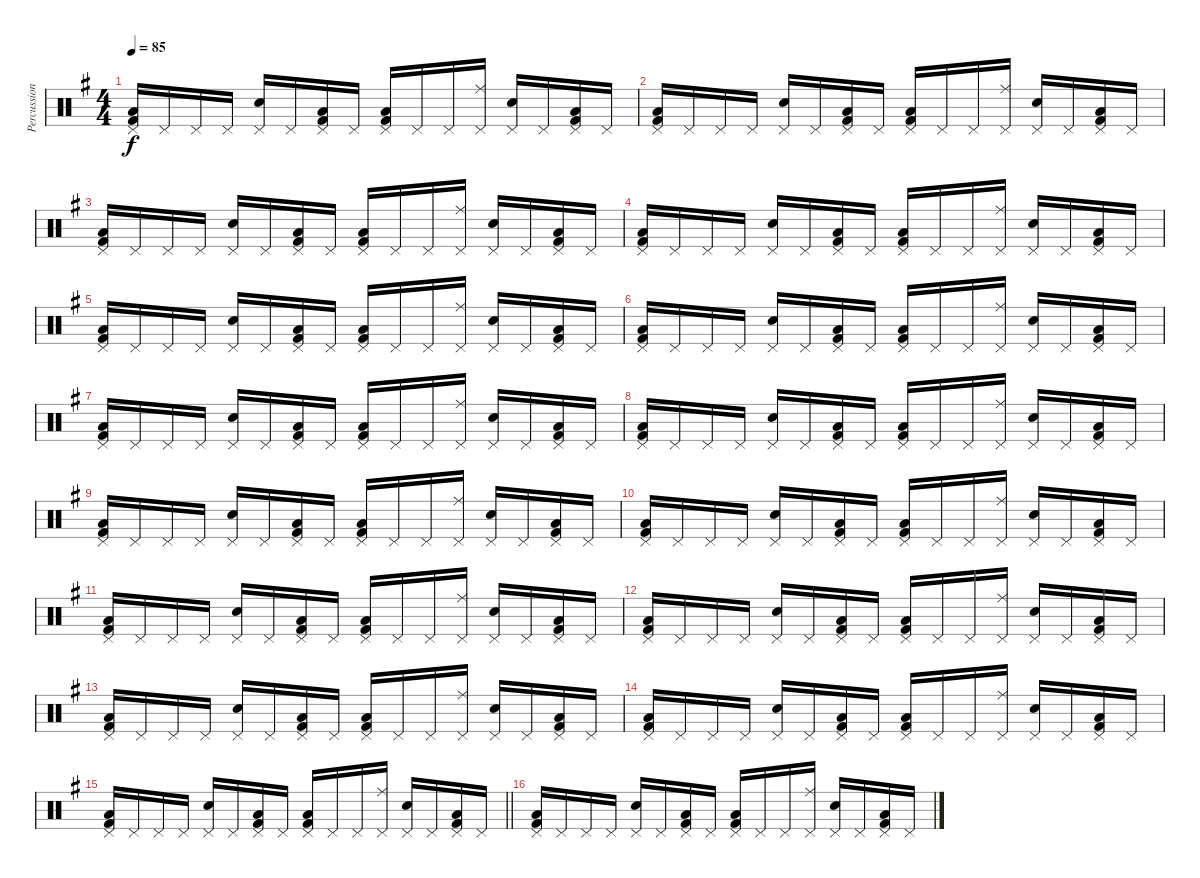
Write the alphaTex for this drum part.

\track ("Percussion" "Percussion") {instrument percussion}
\staff {score}
\articulation defaults
\ts (4 4)
\tempo 85
\clef neutral
\ks g
("Pedal Hi-Hat (hit)" "Low Tom (hit)" "Kick (hit) 2").16{dy f} "Pedal Hi-Hat (hit)".16 "Pedal Hi-Hat (hit)".16 "Pedal Hi-Hat (hit)".16 ("Pedal Hi-Hat (hit)" "Electric Snare (hit)").16 "Pedal Hi-Hat (hit)".16 ("Pedal Hi-Hat (hit)" "Low Floor Tom (hit)" "Kick (hit) 2").16 "Pedal Hi-Hat (hit)".16 ("Pedal Hi-Hat (hit)" "Low Tom (hit)" "Kick (hit) 2").16 "Pedal Hi-Hat (hit)".16 "Pedal Hi-Hat (hit)".16 ("Pedal Hi-Hat (hit)" "Ride (middle)").16 ("Pedal Hi-Hat (hit)" "Electric Snare (hit)").16 "Pedal Hi-Hat (hit)".16 ("Pedal Hi-Hat (hit)" "Low Floor Tom (hit)" "Kick (hit) 2").16 "Pedal Hi-Hat (hit)".16 |
("Pedal Hi-Hat (hit)" "Low Tom (hit)" "Kick (hit) 2").16 "Pedal Hi-Hat (hit)".16 "Pedal Hi-Hat (hit)".16 "Pedal Hi-Hat (hit)".16 ("Pedal Hi-Hat (hit)" "Electric Snare (hit)").16 "Pedal Hi-Hat (hit)".16 ("Pedal Hi-Hat (hit)" "Low Floor Tom (hit)" "Kick (hit) 2").16 "Pedal Hi-Hat (hit)".16 ("Pedal Hi-Hat (hit)" "Low Tom (hit)" "Kick (hit) 2").16 "Pedal Hi-Hat (hit)".16 "Pedal Hi-Hat (hit)".16 ("Pedal Hi-Hat (hit)" "Ride (middle)").16 ("Pedal Hi-Hat (hit)" "Electric Snare (hit)").16 "Pedal Hi-Hat (hit)".16 ("Pedal Hi-Hat (hit)" "Low Floor Tom (hit)" "Kick (hit) 2").16 "Pedal Hi-Hat (hit)".16 |
("Pedal Hi-Hat (hit)" "Low Tom (hit)" "Kick (hit) 2").16 "Pedal Hi-Hat (hit)".16 "Pedal Hi-Hat (hit)".16 "Pedal Hi-Hat (hit)".16 ("Pedal Hi-Hat (hit)" "Electric Snare (hit)").16 "Pedal Hi-Hat (hit)".16 ("Pedal Hi-Hat (hit)" "Low Floor Tom (hit)" "Kick (hit) 2").16 "Pedal Hi-Hat (hit)".16 ("Pedal Hi-Hat (hit)" "Low Tom (hit)" "Kick (hit) 2").16 "Pedal Hi-Hat (hit)".16 "Pedal Hi-Hat (hit)".16 ("Pedal Hi-Hat (hit)" "Ride (middle)").16 ("Pedal Hi-Hat (hit)" "Electric Snare (hit)").16 "Pedal Hi-Hat (hit)".16 ("Pedal Hi-Hat (hit)" "Low Floor Tom (hit)" "Kick (hit) 2").16 "Pedal Hi-Hat (hit)".16 |
("Pedal Hi-Hat (hit)" "Low Tom (hit)" "Kick (hit) 2").16 "Pedal Hi-Hat (hit)".16 "Pedal Hi-Hat (hit)".16 "Pedal Hi-Hat (hit)".16 ("Pedal Hi-Hat (hit)" "Electric Snare (hit)").16 "Pedal Hi-Hat (hit)".16 ("Pedal Hi-Hat (hit)" "Low Floor Tom (hit)" "Kick (hit) 2").16 "Pedal Hi-Hat (hit)".16 ("Pedal Hi-Hat (hit)" "Low Tom (hit)" "Kick (hit) 2").16 "Pedal Hi-Hat (hit)".16 "Pedal Hi-Hat (hit)".16 ("Pedal Hi-Hat (hit)" "Ride (middle)").16 ("Pedal Hi-Hat (hit)" "Electric Snare (hit)").16 "Pedal Hi-Hat (hit)".16 ("Pedal Hi-Hat (hit)" "Low Floor Tom (hit)" "Kick (hit) 2").16 "Pedal Hi-Hat (hit)".16 |
("Pedal Hi-Hat (hit)" "Low Tom (hit)" "Kick (hit) 2").16 "Pedal Hi-Hat (hit)".16 "Pedal Hi-Hat (hit)".16 "Pedal Hi-Hat (hit)".16 ("Pedal Hi-Hat (hit)" "Electric Snare (hit)").16 "Pedal Hi-Hat (hit)".16 ("Pedal Hi-Hat (hit)" "Low Floor Tom (hit)" "Kick (hit) 2").16 "Pedal Hi-Hat (hit)".16 ("Pedal Hi-Hat (hit)" "Low Tom (hit)" "Kick (hit) 2").16 "Pedal Hi-Hat (hit)".16 "Pedal Hi-Hat (hit)".16 ("Pedal Hi-Hat (hit)" "Ride (middle)").16 ("Pedal Hi-Hat (hit)" "Electric Snare (hit)").16 "Pedal Hi-Hat (hit)".16 ("Pedal Hi-Hat (hit)" "Low Floor Tom (hit)" "Kick (hit) 2").16 "Pedal Hi-Hat (hit)".16 |
("Pedal Hi-Hat (hit)" "Low Tom (hit)" "Kick (hit) 2").16 "Pedal Hi-Hat (hit)".16 "Pedal Hi-Hat (hit)".16 "Pedal Hi-Hat (hit)".16 ("Pedal Hi-Hat (hit)" "Electric Snare (hit)").16 "Pedal Hi-Hat (hit)".16 ("Pedal Hi-Hat (hit)" "Low Floor Tom (hit)" "Kick (hit) 2").16 "Pedal Hi-Hat (hit)".16 ("Pedal Hi-Hat (hit)" "Low Tom (hit)" "Kick (hit) 2").16 "Pedal Hi-Hat (hit)".16 "Pedal Hi-Hat (hit)".16 ("Pedal Hi-Hat (hit)" "Ride (middle)").16 ("Pedal Hi-Hat (hit)" "Electric Snare (hit)").16 "Pedal Hi-Hat (hit)".16 ("Pedal Hi-Hat (hit)" "Low Floor Tom (hit)" "Kick (hit) 2").16 "Pedal Hi-Hat (hit)".16 |
("Pedal Hi-Hat (hit)" "Low Tom (hit)" "Kick (hit) 2").16 "Pedal Hi-Hat (hit)".16 "Pedal Hi-Hat (hit)".16 "Pedal Hi-Hat (hit)".16 ("Pedal Hi-Hat (hit)" "Electric Snare (hit)").16 "Pedal Hi-Hat (hit)".16 ("Pedal Hi-Hat (hit)" "Low Floor Tom (hit)" "Kick (hit) 2").16 "Pedal Hi-Hat (hit)".16 ("Pedal Hi-Hat (hit)" "Low Tom (hit)" "Kick (hit) 2").16 "Pedal Hi-Hat (hit)".16 "Pedal Hi-Hat (hit)".16 ("Pedal Hi-Hat (hit)" "Ride (middle)").16 ("Pedal Hi-Hat (hit)" "Electric Snare (hit)").16 "Pedal Hi-Hat (hit)".16 ("Pedal Hi-Hat (hit)" "Low Floor Tom (hit)" "Kick (hit) 2").16 "Pedal Hi-Hat (hit)".16 |
("Pedal Hi-Hat (hit)" "Low Tom (hit)" "Kick (hit) 2").16 "Pedal Hi-Hat (hit)".16 "Pedal Hi-Hat (hit)".16 "Pedal Hi-Hat (hit)".16 ("Pedal Hi-Hat (hit)" "Electric Snare (hit)").16 "Pedal Hi-Hat (hit)".16 ("Pedal Hi-Hat (hit)" "Low Floor Tom (hit)" "Kick (hit) 2").16 "Pedal Hi-Hat (hit)".16 ("Pedal Hi-Hat (hit)" "Low Tom (hit)" "Kick (hit) 2").16 "Pedal Hi-Hat (hit)".16 "Pedal Hi-Hat (hit)".16 ("Pedal Hi-Hat (hit)" "Ride (middle)").16 ("Pedal Hi-Hat (hit)" "Electric Snare (hit)").16 "Pedal Hi-Hat (hit)".16 ("Pedal Hi-Hat (hit)" "Low Floor Tom (hit)" "Kick (hit) 2").16 "Pedal Hi-Hat (hit)".16 |
("Pedal Hi-Hat (hit)" "Low Tom (hit)" "Kick (hit) 2").16 "Pedal Hi-Hat (hit)".16 "Pedal Hi-Hat (hit)".16 "Pedal Hi-Hat (hit)".16 ("Pedal Hi-Hat (hit)" "Electric Snare (hit)").16 "Pedal Hi-Hat (hit)".16 ("Pedal Hi-Hat (hit)" "Low Floor Tom (hit)" "Kick (hit) 2").16 "Pedal Hi-Hat (hit)".16 ("Pedal Hi-Hat (hit)" "Low Tom (hit)" "Kick (hit) 2").16 "Pedal Hi-Hat (hit)".16 "Pedal Hi-Hat (hit)".16 ("Pedal Hi-Hat (hit)" "Ride (middle)").16 ("Pedal Hi-Hat (hit)" "Electric Snare (hit)").16 "Pedal Hi-Hat (hit)".16 ("Pedal Hi-Hat (hit)" "Low Floor Tom (hit)" "Kick (hit) 2").16 "Pedal Hi-Hat (hit)".16 |
("Pedal Hi-Hat (hit)" "Low Tom (hit)" "Kick (hit) 2").16 "Pedal Hi-Hat (hit)".16 "Pedal Hi-Hat (hit)".16 "Pedal Hi-Hat (hit)".16 ("Pedal Hi-Hat (hit)" "Electric Snare (hit)").16 "Pedal Hi-Hat (hit)".16 ("Pedal Hi-Hat (hit)" "Low Floor Tom (hit)" "Kick (hit) 2").16 "Pedal Hi-Hat (hit)".16 ("Pedal Hi-Hat (hit)" "Low Tom (hit)" "Kick (hit) 2").16 "Pedal Hi-Hat (hit)".16 "Pedal Hi-Hat (hit)".16 ("Pedal Hi-Hat (hit)" "Ride (middle)").16 ("Pedal Hi-Hat (hit)" "Electric Snare (hit)").16 "Pedal Hi-Hat (hit)".16 ("Pedal Hi-Hat (hit)" "Low Floor Tom (hit)" "Kick (hit) 2").16 "Pedal Hi-Hat (hit)".16 |
("Pedal Hi-Hat (hit)" "Low Tom (hit)" "Kick (hit) 2").16 "Pedal Hi-Hat (hit)".16 "Pedal Hi-Hat (hit)".16 "Pedal Hi-Hat (hit)".16 ("Pedal Hi-Hat (hit)" "Electric Snare (hit)").16 "Pedal Hi-Hat (hit)".16 ("Pedal Hi-Hat (hit)" "Low Floor Tom (hit)" "Kick (hit) 2").16 "Pedal Hi-Hat (hit)".16 ("Pedal Hi-Hat (hit)" "Low Tom (hit)" "Kick (hit) 2").16 "Pedal Hi-Hat (hit)".16 "Pedal Hi-Hat (hit)".16 ("Pedal Hi-Hat (hit)" "Ride (middle)").16 ("Pedal Hi-Hat (hit)" "Electric Snare (hit)").16 "Pedal Hi-Hat (hit)".16 ("Pedal Hi-Hat (hit)" "Low Floor Tom (hit)" "Kick (hit) 2").16 "Pedal Hi-Hat (hit)".16 |
("Pedal Hi-Hat (hit)" "Low Tom (hit)" "Kick (hit) 2").16 "Pedal Hi-Hat (hit)".16 "Pedal Hi-Hat (hit)".16 "Pedal Hi-Hat (hit)".16 ("Pedal Hi-Hat (hit)" "Electric Snare (hit)").16 "Pedal Hi-Hat (hit)".16 ("Pedal Hi-Hat (hit)" "Low Floor Tom (hit)" "Kick (hit) 2").16 "Pedal Hi-Hat (hit)".16 ("Pedal Hi-Hat (hit)" "Low Tom (hit)" "Kick (hit) 2").16 "Pedal Hi-Hat (hit)".16 "Pedal Hi-Hat (hit)".16 ("Pedal Hi-Hat (hit)" "Ride (middle)").16 ("Pedal Hi-Hat (hit)" "Electric Snare (hit)").16 "Pedal Hi-Hat (hit)".16 ("Pedal Hi-Hat (hit)" "Low Floor Tom (hit)" "Kick (hit) 2").16 "Pedal Hi-Hat (hit)".16 |
("Pedal Hi-Hat (hit)" "Low Tom (hit)" "Kick (hit) 2").16 "Pedal Hi-Hat (hit)".16 "Pedal Hi-Hat (hit)".16 "Pedal Hi-Hat (hit)".16 ("Pedal Hi-Hat (hit)" "Electric Snare (hit)").16 "Pedal Hi-Hat (hit)".16 ("Pedal Hi-Hat (hit)" "Low Floor Tom (hit)" "Kick (hit) 2").16 "Pedal Hi-Hat (hit)".16 ("Pedal Hi-Hat (hit)" "Low Tom (hit)" "Kick (hit) 2").16 "Pedal Hi-Hat (hit)".16 "Pedal Hi-Hat (hit)".16 ("Pedal Hi-Hat (hit)" "Ride (middle)").16 ("Pedal Hi-Hat (hit)" "Electric Snare (hit)").16 "Pedal Hi-Hat (hit)".16 ("Pedal Hi-Hat (hit)" "Low Floor Tom (hit)" "Kick (hit) 2").16 "Pedal Hi-Hat (hit)".16 |
("Pedal Hi-Hat (hit)" "Low Tom (hit)" "Kick (hit) 2").16 "Pedal Hi-Hat (hit)".16 "Pedal Hi-Hat (hit)".16 "Pedal Hi-Hat (hit)".16 ("Pedal Hi-Hat (hit)" "Electric Snare (hit)").16 "Pedal Hi-Hat (hit)".16 ("Pedal Hi-Hat (hit)" "Low Floor Tom (hit)" "Kick (hit) 2").16 "Pedal Hi-Hat (hit)".16 ("Pedal Hi-Hat (hit)" "Low Tom (hit)" "Kick (hit) 2").16 "Pedal Hi-Hat (hit)".16 "Pedal Hi-Hat (hit)".16 ("Pedal Hi-Hat (hit)" "Ride (middle)").16 ("Pedal Hi-Hat (hit)" "Electric Snare (hit)").16 "Pedal Hi-Hat (hit)".16 ("Pedal Hi-Hat (hit)" "Low Floor Tom (hit)" "Kick (hit) 2").16 "Pedal Hi-Hat (hit)".16 |
\barLineRight lightlight
("Pedal Hi-Hat (hit)" "Low Tom (hit)" "Kick (hit) 2").16 "Pedal Hi-Hat (hit)".16 "Pedal Hi-Hat (hit)".16 "Pedal Hi-Hat (hit)".16 ("Pedal Hi-Hat (hit)" "Electric Snare (hit)").16 "Pedal Hi-Hat (hit)".16 ("Pedal Hi-Hat (hit)" "Low Floor Tom (hit)" "Kick (hit) 2").16 "Pedal Hi-Hat (hit)".16 ("Pedal Hi-Hat (hit)" "Low Tom (hit)" "Kick (hit) 2").16 "Pedal Hi-Hat (hit)".16 "Pedal Hi-Hat (hit)".16 ("Pedal Hi-Hat (hit)" "Ride (middle)").16 ("Pedal Hi-Hat (hit)" "Electric Snare (hit)").16 "Pedal Hi-Hat (hit)".16 ("Pedal Hi-Hat (hit)" "Low Floor Tom (hit)" "Kick (hit) 2").16 "Pedal Hi-Hat (hit)".16 |
("Pedal Hi-Hat (hit)" "Low Tom (hit)" "Kick (hit) 2").16 "Pedal Hi-Hat (hit)".16 "Pedal Hi-Hat (hit)".16 "Pedal Hi-Hat (hit)".16 ("Pedal Hi-Hat (hit)" "Electric Snare (hit)").16 "Pedal Hi-Hat (hit)".16 ("Pedal Hi-Hat (hit)" "Low Floor Tom (hit)" "Kick (hit) 2").16 "Pedal Hi-Hat (hit)".16 ("Pedal Hi-Hat (hit)" "Low Tom (hit)" "Kick (hit) 2").16 "Pedal Hi-Hat (hit)".16 "Pedal Hi-Hat (hit)".16 ("Pedal Hi-Hat (hit)" "Ride (middle)").16 ("Pedal Hi-Hat (hit)" "Electric Snare (hit)").16 "Pedal Hi-Hat (hit)".16 ("Pedal Hi-Hat (hit)" "Low Floor Tom (hit)" "Kick (hit) 2").16 "Pedal Hi-Hat (hit)".16
